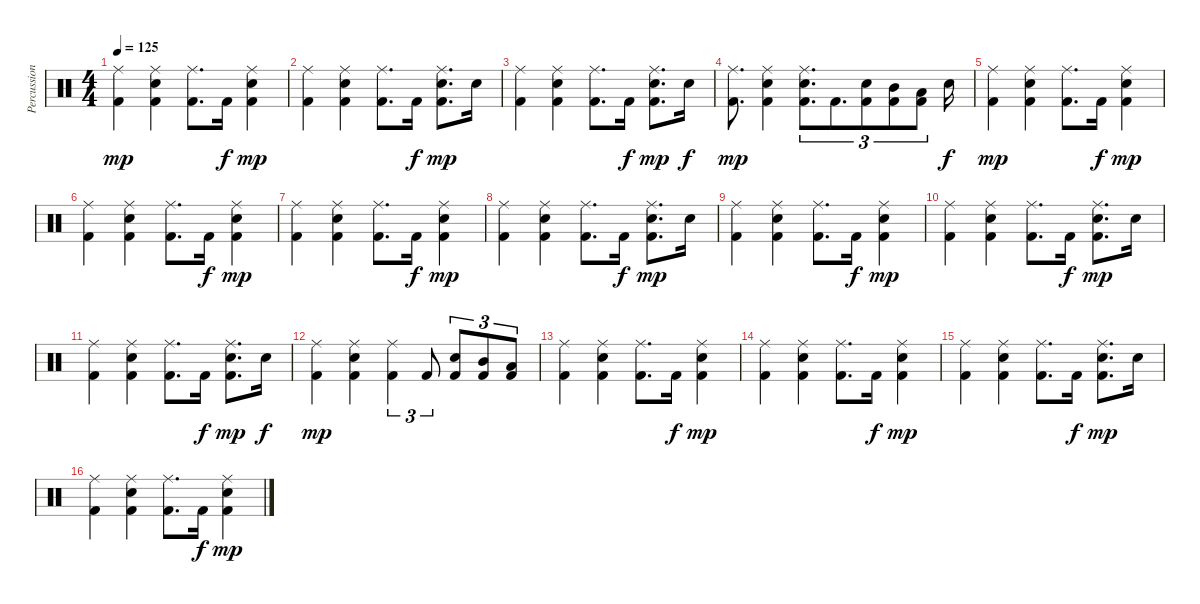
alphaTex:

\track ("Percussions" "Percussion") {instrument percussion}
\staff {score}
\articulation defaults
\ts (4 4)
\tempo 125
\clef neutral
\ks c
("Ride (middle)" "Kick (hit) 2").4{dy mp} ("Ride (middle)" "Electric Snare (hit)" "Kick (hit) 2").4 ("Ride (middle)" "Kick (hit) 2").8{d} "Kick (hit) 2".16{dy f} ("Ride (middle)" "Electric Snare (hit)" "Kick (hit) 2").4{dy mp} |
("Ride (middle)" "Kick (hit) 2").4 ("Ride (middle)" "Electric Snare (hit)" "Kick (hit) 2").4 ("Ride (middle)" "Kick (hit) 2").8{d} "Kick (hit) 2".16{dy f} ("Ride (middle)" "Electric Snare (hit)" "Kick (hit) 2").8{d dy mp} "Electric Snare (hit)".16 |
("Ride (middle)" "Kick (hit) 2").4 ("Ride (middle)" "Electric Snare (hit)" "Kick (hit) 2").4 ("Ride (middle)" "Kick (hit) 2").8{d} "Kick (hit) 2".16{dy f} ("Ride (middle)" "Electric Snare (hit)" "Kick (hit) 2").8{d dy mp} "Electric Snare (hit)".16{dy f} |
("Ride (middle)" "Kick (hit) 2").8{d dy mp} ("Ride (middle)" "Electric Snare (hit)" "Kick (hit) 2").4 ("Ride (middle)" "Electric Snare (hit)" "Kick (hit) 2").8{d tu (3 2)} "Kick (hit) 2".8{d tu (3 2)} ("Electric Snare (hit)" "Kick (hit) 2").8{tu (3 2)} ("Mid Tom (hit)" "Kick (hit) 2").8{tu (3 2)} ("Low Tom (hit)" "Kick (hit) 2").8{tu (3 2)} "Electric Snare (hit)".16{dy f} |
("Ride (middle)" "Kick (hit) 2").4{dy mp} ("Ride (middle)" "Electric Snare (hit)" "Kick (hit) 2").4 ("Ride (middle)" "Kick (hit) 2").8{d} "Kick (hit) 2".16{dy f} ("Ride (middle)" "Electric Snare (hit)" "Kick (hit) 2").4{dy mp} |
("Ride (middle)" "Kick (hit) 2").4 ("Ride (middle)" "Electric Snare (hit)" "Kick (hit) 2").4 ("Ride (middle)" "Kick (hit) 2").8{d} "Kick (hit) 2".16{dy f} ("Ride (middle)" "Electric Snare (hit)" "Kick (hit) 2").4{dy mp} |
("Ride (middle)" "Kick (hit) 2").4 ("Ride (middle)" "Electric Snare (hit)" "Kick (hit) 2").4 ("Ride (middle)" "Kick (hit) 2").8{d} "Kick (hit) 2".16{dy f} ("Ride (middle)" "Electric Snare (hit)" "Kick (hit) 2").4{dy mp} |
("Ride (middle)" "Kick (hit) 2").4 ("Ride (middle)" "Electric Snare (hit)" "Kick (hit) 2").4 ("Ride (middle)" "Kick (hit) 2").8{d} "Kick (hit) 2".16{dy f} ("Ride (middle)" "Electric Snare (hit)" "Kick (hit) 2").8{d dy mp} "Electric Snare (hit)".16 |
("Ride (middle)" "Kick (hit) 2").4 ("Ride (middle)" "Electric Snare (hit)" "Kick (hit) 2").4 ("Ride (middle)" "Kick (hit) 2").8{d} "Kick (hit) 2".16{dy f} ("Ride (middle)" "Electric Snare (hit)" "Kick (hit) 2").4{dy mp} |
("Ride (middle)" "Kick (hit) 2").4 ("Ride (middle)" "Electric Snare (hit)" "Kick (hit) 2").4 ("Ride (middle)" "Kick (hit) 2").8{d} "Kick (hit) 2".16{dy f} ("Ride (middle)" "Electric Snare (hit)" "Kick (hit) 2").8{d dy mp} "Electric Snare (hit)".16 |
("Ride (middle)" "Kick (hit) 2").4 ("Ride (middle)" "Electric Snare (hit)" "Kick (hit) 2").4 ("Ride (middle)" "Kick (hit) 2").8{d} "Kick (hit) 2".16{dy f} ("Ride (middle)" "Electric Snare (hit)" "Kick (hit) 2").8{d dy mp} "Electric Snare (hit)".16{dy f} |
("Ride (middle)" "Kick (hit) 2").4{dy mp} ("Ride (middle)" "Electric Snare (hit)" "Kick (hit) 2").4 ("Ride (middle)" "Kick (hit) 2").4{tu (3 2)} "Kick (hit) 2".8{tu (3 2)} ("Electric Snare (hit)" "Kick (hit) 2").8{tu (3 2)} ("Mid Tom (hit)" "Kick (hit) 2").8{tu (3 2)} ("Low Tom (hit)" "Kick (hit) 2").8{tu (3 2)} |
("Ride (middle)" "Kick (hit) 2").4 ("Ride (middle)" "Electric Snare (hit)" "Kick (hit) 2").4 ("Ride (middle)" "Kick (hit) 2").8{d} "Kick (hit) 2".16{dy f} ("Ride (middle)" "Electric Snare (hit)" "Kick (hit) 2").4{dy mp} |
("Ride (middle)" "Kick (hit) 2").4 ("Ride (middle)" "Electric Snare (hit)" "Kick (hit) 2").4 ("Ride (middle)" "Kick (hit) 2").8{d} "Kick (hit) 2".16{dy f} ("Ride (middle)" "Electric Snare (hit)" "Kick (hit) 2").4{dy mp} |
("Ride (middle)" "Kick (hit) 2").4 ("Ride (middle)" "Electric Snare (hit)" "Kick (hit) 2").4 ("Ride (middle)" "Kick (hit) 2").8{d} "Kick (hit) 2".16{dy f} ("Ride (middle)" "Electric Snare (hit)" "Kick (hit) 2").8{d dy mp} "Electric Snare (hit)".16 |
("Ride (middle)" "Kick (hit) 2").4 ("Ride (middle)" "Electric Snare (hit)" "Kick (hit) 2").4 ("Ride (middle)" "Kick (hit) 2").8{d} "Kick (hit) 2".16{dy f} ("Ride (middle)" "Electric Snare (hit)" "Kick (hit) 2").4{dy mp}
